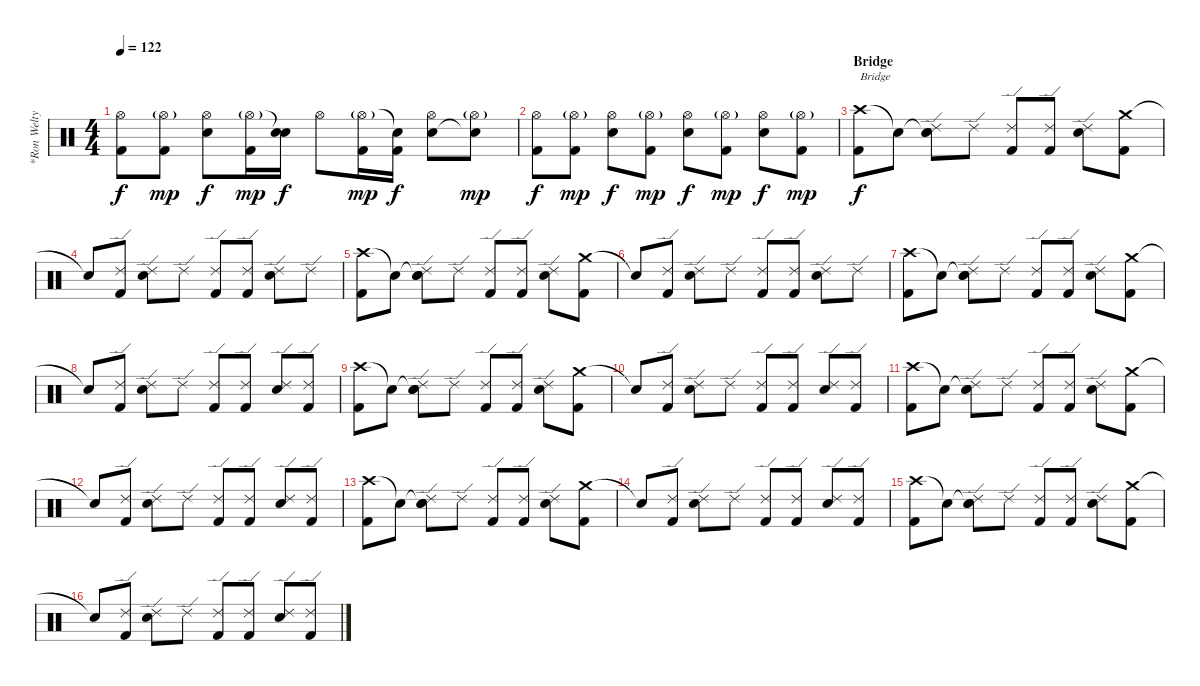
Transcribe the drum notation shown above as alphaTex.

\track ("*Ron Welty (Ex-drummer)" "*Ron Welty") {instrument percussion}
\staff {score}
\articulation defaults
\ts (4 4)
\tempo 122
\clef neutral
\ks c
("Hi-Hat (open)" "Kick (hit) 2").8{dy f} ("Hi-Hat (open)"{g} "Kick (hit) 2").8{dy mp} ("Hi-Hat (open)" "Electric Snare (hit)").8{dy f} ("Hi-Hat (open)"{g} "Kick (hit) 2").16{dy mp} ("Snare (hit)"{t} "Electric Snare (hit)").16{dy f} "Hi-Hat (open)".8 ("Hi-Hat (open)"{g} "Kick (hit) 2").16{dy mp} ("Snare (hit)"{t} "Kick (hit) 2").16{dy f} ("Hi-Hat (open)" "Electric Snare (hit)").8 ("Hi-Hat (open)"{g} "Snare (hit)"{t}).8{dy mp} |
("Hi-Hat (open)" "Kick (hit) 2").8{dy f} ("Hi-Hat (open)"{g} "Kick (hit) 2").8{dy mp} ("Hi-Hat (open)" "Electric Snare (hit)").8{dy f} ("Hi-Hat (open)"{g} "Kick (hit) 2").8{dy mp} ("Hi-Hat (open)" "Electric Snare (hit)").8{dy f} ("Hi-Hat (open)"{g} "Kick (hit) 2").8{dy mp} ("Hi-Hat (open)" "Electric Snare (hit)").8{dy f} ("Hi-Hat (open)"{g} "Kick (hit) 2").8{dy mp} |
\section ("" "Bridge")
("Crash high (hit)" "Kick (hit) 2").8{txt "Bridge" dy f} "Snare (hit)"{t}.8 ("Snare (hit)"{t} "Ride (edge) 2" "Electric Snare (hit)").8 "Ride (edge) 2".8 ("Ride (edge) 2" "Kick (hit) 2").8 ("Ride (edge) 2" "Kick (hit) 2").8 ("Ride (edge) 2" "Electric Snare (hit)").8 ("Crash medium (hit)" "Kick (hit) 2").8 |
"Snare (hit)"{t}.8 ("Ride (edge) 2" "Kick (hit) 2").8 ("Ride (edge) 2" "Electric Snare (hit)").8 "Ride (edge) 2".8 ("Ride (edge) 2" "Kick (hit) 2").8 ("Ride (edge) 2" "Kick (hit) 2").8 ("Ride (edge) 2" "Electric Snare (hit)").8 "Ride (edge) 2".8 |
("Crash high (hit)" "Kick (hit) 2").8 "Snare (hit)"{t}.8 ("Snare (hit)"{t} "Ride (edge) 2" "Electric Snare (hit)").8 "Ride (edge) 2".8 ("Ride (edge) 2" "Kick (hit) 2").8 ("Ride (edge) 2" "Kick (hit) 2").8 ("Ride (edge) 2" "Electric Snare (hit)").8 ("Crash medium (hit)" "Kick (hit) 2").8 |
"Snare (hit)"{t}.8 ("Ride (edge) 2" "Kick (hit) 2").8 ("Ride (edge) 2" "Electric Snare (hit)").8 "Ride (edge) 2".8 ("Ride (edge) 2" "Kick (hit) 2").8 ("Ride (edge) 2" "Kick (hit) 2").8 ("Ride (edge) 2" "Electric Snare (hit)").8 "Ride (edge) 2".8 |
("Crash high (hit)" "Kick (hit) 2").8 "Snare (hit)"{t}.8 ("Snare (hit)"{t} "Ride (edge) 2" "Electric Snare (hit)").8 "Ride (edge) 2".8 ("Ride (edge) 2" "Kick (hit) 2").8 ("Ride (edge) 2" "Kick (hit) 2").8 ("Ride (edge) 2" "Electric Snare (hit)").8 ("Crash medium (hit)" "Kick (hit) 2").8 |
"Snare (hit)"{t}.8 ("Ride (edge) 2" "Kick (hit) 2").8 ("Ride (edge) 2" "Electric Snare (hit)").8 "Ride (edge) 2".8 ("Ride (edge) 2" "Kick (hit) 2").8 ("Ride (edge) 2" "Kick (hit) 2").8 ("Ride (edge) 2" "Electric Snare (hit)").8 ("Ride (edge) 2" "Kick (hit) 2").8 |
("Crash high (hit)" "Kick (hit) 2").8 "Snare (hit)"{t}.8 ("Snare (hit)"{t} "Ride (edge) 2" "Electric Snare (hit)").8 "Ride (edge) 2".8 ("Ride (edge) 2" "Kick (hit) 2").8 ("Ride (edge) 2" "Kick (hit) 2").8 ("Ride (edge) 2" "Electric Snare (hit)").8 ("Crash medium (hit)" "Kick (hit) 2").8 |
"Snare (hit)"{t}.8 ("Ride (edge) 2" "Kick (hit) 2").8 ("Ride (edge) 2" "Electric Snare (hit)").8 "Ride (edge) 2".8 ("Ride (edge) 2" "Kick (hit) 2").8 ("Ride (edge) 2" "Kick (hit) 2").8 ("Ride (edge) 2" "Electric Snare (hit)").8 ("Ride (edge) 2" "Kick (hit) 2").8 |
("Crash high (hit)" "Kick (hit) 2").8 "Snare (hit)"{t}.8 ("Snare (hit)"{t} "Ride (edge) 2" "Electric Snare (hit)").8 "Ride (edge) 2".8 ("Ride (edge) 2" "Kick (hit) 2").8 ("Ride (edge) 2" "Kick (hit) 2").8 ("Ride (edge) 2" "Electric Snare (hit)").8 ("Crash medium (hit)" "Kick (hit) 2").8 |
"Snare (hit)"{t}.8 ("Ride (edge) 2" "Kick (hit) 2").8 ("Ride (edge) 2" "Electric Snare (hit)").8 "Ride (edge) 2".8 ("Ride (edge) 2" "Kick (hit) 2").8 ("Ride (edge) 2" "Kick (hit) 2").8 ("Ride (edge) 2" "Electric Snare (hit)").8 ("Ride (edge) 2" "Kick (hit) 2").8 |
("Crash high (hit)" "Kick (hit) 2").8 "Snare (hit)"{t}.8 ("Snare (hit)"{t} "Ride (edge) 2" "Electric Snare (hit)").8 "Ride (edge) 2".8 ("Ride (edge) 2" "Kick (hit) 2").8 ("Ride (edge) 2" "Kick (hit) 2").8 ("Ride (edge) 2" "Electric Snare (hit)").8 ("Crash medium (hit)" "Kick (hit) 2").8 |
"Snare (hit)"{t}.8 ("Ride (edge) 2" "Kick (hit) 2").8 ("Ride (edge) 2" "Electric Snare (hit)").8 "Ride (edge) 2".8 ("Ride (edge) 2" "Kick (hit) 2").8 ("Ride (edge) 2" "Kick (hit) 2").8 ("Ride (edge) 2" "Electric Snare (hit)").8 ("Ride (edge) 2" "Kick (hit) 2").8 |
("Crash high (hit)" "Kick (hit) 2").8 "Snare (hit)"{t}.8 ("Snare (hit)"{t} "Ride (edge) 2" "Electric Snare (hit)").8 "Ride (edge) 2".8 ("Ride (edge) 2" "Kick (hit) 2").8 ("Ride (edge) 2" "Kick (hit) 2").8 ("Ride (edge) 2" "Electric Snare (hit)").8 ("Crash medium (hit)" "Kick (hit) 2").8 |
"Snare (hit)"{t}.8 ("Ride (edge) 2" "Kick (hit) 2").8 ("Ride (edge) 2" "Electric Snare (hit)").8 "Ride (edge) 2".8 ("Ride (edge) 2" "Kick (hit) 2").8 ("Ride (edge) 2" "Kick (hit) 2").8 ("Ride (edge) 2" "Electric Snare (hit)").8 ("Ride (edge) 2" "Kick (hit) 2").8
